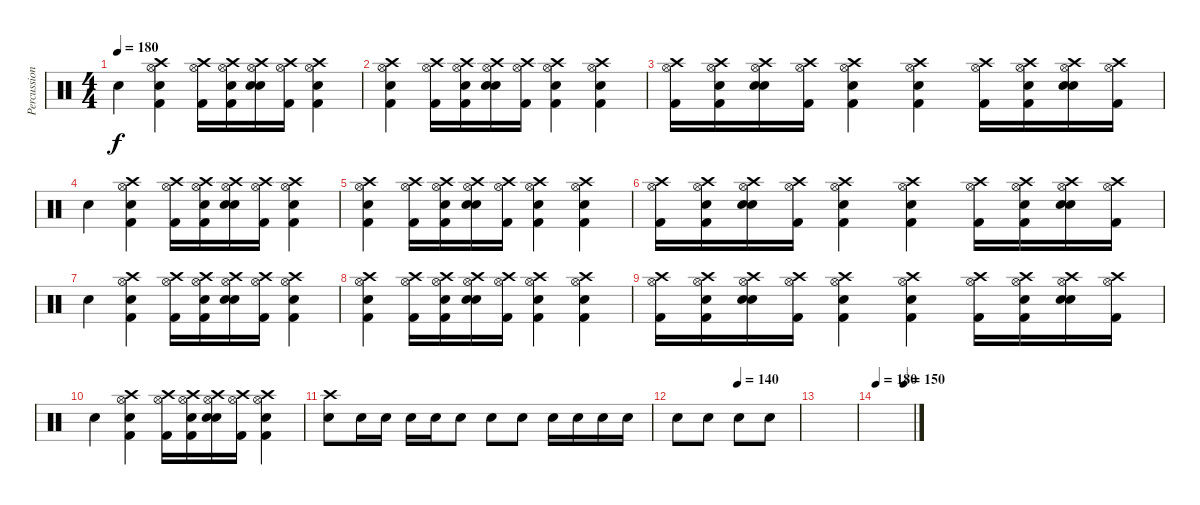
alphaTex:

\track ("Percussion" "Percussion") {instrument percussion}
\staff {score}
\articulation defaults
\ts (4 4)
\tempo 180
\clef neutral
\ks c "Snare (hit)".4{dy f}
("Crash high (hit)" "Hi-Hat (open)" "Electric Snare (hit)" "Kick (hit) 2").4 ("Crash high (hit)" "Hi-Hat (open)" "Kick (hit) 2").16 ("Crash high (hit)" "Hi-Hat (open)" "Snare (hit)" "Kick (hit) 2").16 ("Crash high (hit)" "Hi-Hat (open)" "Electric Snare (hit)" "Snare (hit) 2").16 ("Crash high (hit)" "Hi-Hat (open)" "Kick (hit) 2").16 ("Crash high (hit)" "Hi-Hat (open)" "Electric Snare (hit)" "Kick (hit) 2").4 |
("Crash high (hit)" "Hi-Hat (open)" "Electric Snare (hit)" "Kick (hit) 2").4 ("Crash high (hit)" "Hi-Hat (open)" "Kick (hit) 2").16 ("Crash high (hit)" "Hi-Hat (open)" "Snare (hit)" "Kick (hit) 2").16 ("Crash high (hit)" "Hi-Hat (open)" "Electric Snare (hit)" "Snare (hit) 2").16 ("Crash high (hit)" "Hi-Hat (open)" "Kick (hit) 2").16 ("Crash high (hit)" "Hi-Hat (open)" "Electric Snare (hit)" "Kick (hit) 2").4 ("Crash high (hit)" "Hi-Hat (open)" "Electric Snare (hit)" "Kick (hit) 2").4 |
("Crash high (hit)" "Hi-Hat (open)" "Kick (hit) 2").16 ("Crash high (hit)" "Hi-Hat (open)" "Snare (hit)" "Kick (hit) 2").16 ("Crash high (hit)" "Hi-Hat (open)" "Electric Snare (hit)" "Snare (hit) 2").16 ("Crash high (hit)" "Hi-Hat (open)" "Kick (hit) 2").16 ("Crash high (hit)" "Hi-Hat (open)" "Electric Snare (hit)" "Kick (hit) 2").4 ("Crash high (hit)" "Hi-Hat (open)" "Electric Snare (hit)" "Kick (hit) 2").4 ("Crash high (hit)" "Hi-Hat (open)" "Kick (hit) 2").16 ("Crash high (hit)" "Hi-Hat (open)" "Snare (hit)" "Kick (hit) 2").16 ("Crash high (hit)" "Hi-Hat (open)" "Electric Snare (hit)" "Snare (hit) 2").16 ("Crash high (hit)" "Hi-Hat (open)" "Kick (hit) 2").16 |
"Snare (hit)".4 ("Crash high (hit)" "Hi-Hat (open)" "Electric Snare (hit)" "Kick (hit) 2").4 ("Crash high (hit)" "Hi-Hat (open)" "Kick (hit) 2").16 ("Crash high (hit)" "Hi-Hat (open)" "Snare (hit)" "Kick (hit) 2").16 ("Crash high (hit)" "Hi-Hat (open)" "Electric Snare (hit)" "Snare (hit) 2").16 ("Crash high (hit)" "Hi-Hat (open)" "Kick (hit) 2").16 ("Crash high (hit)" "Hi-Hat (open)" "Electric Snare (hit)" "Kick (hit) 2").4 |
("Crash high (hit)" "Hi-Hat (open)" "Electric Snare (hit)" "Kick (hit) 2").4 ("Crash high (hit)" "Hi-Hat (open)" "Kick (hit) 2").16 ("Crash high (hit)" "Hi-Hat (open)" "Snare (hit)" "Kick (hit) 2").16 ("Crash high (hit)" "Hi-Hat (open)" "Electric Snare (hit)" "Snare (hit) 2").16 ("Crash high (hit)" "Hi-Hat (open)" "Kick (hit) 2").16 ("Crash high (hit)" "Hi-Hat (open)" "Electric Snare (hit)" "Kick (hit) 2").4 ("Crash high (hit)" "Hi-Hat (open)" "Electric Snare (hit)" "Kick (hit) 2").4 |
("Crash high (hit)" "Hi-Hat (open)" "Kick (hit) 2").16 ("Crash high (hit)" "Hi-Hat (open)" "Snare (hit)" "Kick (hit) 2").16 ("Crash high (hit)" "Hi-Hat (open)" "Electric Snare (hit)" "Snare (hit) 2").16 ("Crash high (hit)" "Hi-Hat (open)" "Kick (hit) 2").16 ("Crash high (hit)" "Hi-Hat (open)" "Electric Snare (hit)" "Kick (hit) 2").4 ("Crash high (hit)" "Hi-Hat (open)" "Electric Snare (hit)" "Kick (hit) 2").4 ("Crash high (hit)" "Hi-Hat (open)" "Kick (hit) 2").16 ("Crash high (hit)" "Hi-Hat (open)" "Snare (hit)" "Kick (hit) 2").16 ("Crash high (hit)" "Hi-Hat (open)" "Electric Snare (hit)" "Snare (hit) 2").16 ("Crash high (hit)" "Hi-Hat (open)" "Kick (hit) 2").16 |
"Snare (hit)".4 ("Crash high (hit)" "Hi-Hat (open)" "Electric Snare (hit)" "Kick (hit) 2").4 ("Crash high (hit)" "Hi-Hat (open)" "Kick (hit) 2").16 ("Crash high (hit)" "Hi-Hat (open)" "Snare (hit)" "Kick (hit) 2").16 ("Crash high (hit)" "Hi-Hat (open)" "Electric Snare (hit)" "Snare (hit) 2").16 ("Crash high (hit)" "Hi-Hat (open)" "Kick (hit) 2").16 ("Crash high (hit)" "Hi-Hat (open)" "Electric Snare (hit)" "Kick (hit) 2").4 |
("Crash high (hit)" "Hi-Hat (open)" "Electric Snare (hit)" "Kick (hit) 2").4 ("Crash high (hit)" "Hi-Hat (open)" "Kick (hit) 2").16 ("Crash high (hit)" "Hi-Hat (open)" "Snare (hit)" "Kick (hit) 2").16 ("Crash high (hit)" "Hi-Hat (open)" "Electric Snare (hit)" "Snare (hit) 2").16 ("Crash high (hit)" "Hi-Hat (open)" "Kick (hit) 2").16 ("Crash high (hit)" "Hi-Hat (open)" "Electric Snare (hit)" "Kick (hit) 2").4 ("Crash high (hit)" "Hi-Hat (open)" "Electric Snare (hit)" "Kick (hit) 2").4 |
("Crash high (hit)" "Hi-Hat (open)" "Kick (hit) 2").16 ("Crash high (hit)" "Hi-Hat (open)" "Snare (hit)" "Kick (hit) 2").16 ("Crash high (hit)" "Hi-Hat (open)" "Electric Snare (hit)" "Snare (hit) 2").16 ("Crash high (hit)" "Hi-Hat (open)" "Kick (hit) 2").16 ("Crash high (hit)" "Hi-Hat (open)" "Electric Snare (hit)" "Kick (hit) 2").4 ("Crash high (hit)" "Hi-Hat (open)" "Electric Snare (hit)" "Kick (hit) 2").4 ("Crash high (hit)" "Hi-Hat (open)" "Kick (hit) 2").16 ("Crash high (hit)" "Hi-Hat (open)" "Snare (hit)" "Kick (hit) 2").16 ("Crash high (hit)" "Hi-Hat (open)" "Electric Snare (hit)" "Snare (hit) 2").16 ("Crash high (hit)" "Hi-Hat (open)" "Kick (hit) 2").16 |
"Snare (hit)".4 ("Crash high (hit)" "Hi-Hat (open)" "Electric Snare (hit)" "Kick (hit) 2").4 ("Crash high (hit)" "Hi-Hat (open)" "Kick (hit) 2").16 ("Crash high (hit)" "Hi-Hat (open)" "Snare (hit)" "Kick (hit) 2").16 ("Crash high (hit)" "Hi-Hat (open)" "Electric Snare (hit)" "Snare (hit) 2").16 ("Crash high (hit)" "Hi-Hat (open)" "Kick (hit) 2").16 ("Crash high (hit)" "Hi-Hat (open)" "Electric Snare (hit)" "Kick (hit) 2").4 |
("Crash high (hit)" "Electric Snare (hit)").8 "Electric Snare (hit)".16 "Electric Snare (hit)".16 "Electric Snare (hit)".16 "Electric Snare (hit)".16 "Electric Snare (hit)".8 "Electric Snare (hit)".8 "Electric Snare (hit)".8 "Electric Snare (hit)".16 "Electric Snare (hit)".16 "Electric Snare (hit)".16 "Electric Snare (hit)".16 |
\tempo (140 0.5)
"Electric Snare (hit)".8 "Electric Snare (hit)".8 "Electric Snare (hit)".8 "Snare (hit)".8 |
|
\tempo 180
\tempo (150 0.75)
